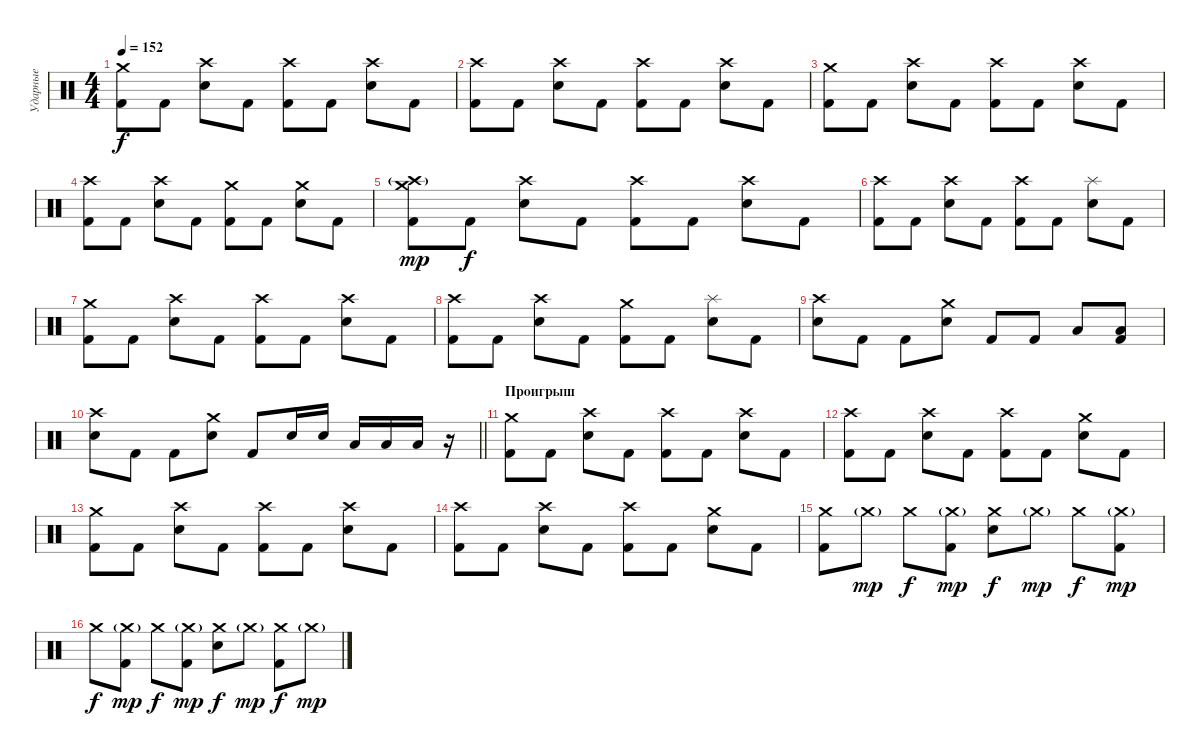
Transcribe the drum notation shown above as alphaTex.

\track ("Ударные" "Ударные") {instrument percussion}
\staff {score}
\articulation defaults
\ts (4 4)
\tempo 152
\clef neutral
\ks c
("Crash medium (hit)" "Kick (hit) 2").8{dy f} "Kick (hit) 2".8 ("Crash high (hit)" "Snare (hit) 2").8 "Kick (hit) 2".8 ("Crash high (hit)" "Kick (hit) 2").8 "Kick (hit) 2".8 ("Crash high (hit)" "Snare (hit) 2").8 "Kick (hit) 2".8 |
("Crash high (hit)" "Kick (hit) 2").8 "Kick (hit) 2".8 ("Crash high (hit)" "Snare (hit) 2").8 "Kick (hit) 2".8 ("Crash high (hit)" "Kick (hit) 2").8 "Kick (hit) 2".8 ("Crash high (hit)" "Snare (hit) 2").8 "Kick (hit) 2".8 |
("Crash medium (hit)" "Kick (hit) 2").8 "Kick (hit) 2".8 ("Crash high (hit)" "Snare (hit) 2").8 "Kick (hit) 2".8 ("Crash high (hit)" "Kick (hit) 2").8 "Kick (hit) 2".8 ("Crash high (hit)" "Snare (hit) 2").8 "Kick (hit) 2".8 |
("Crash high (hit)" "Kick (hit) 2").8 "Kick (hit) 2".8 ("Crash high (hit)" "Snare (hit) 2").8 "Kick (hit) 2".8 ("Crash medium (hit)" "Kick (hit) 2").8 "Kick (hit) 2".8 ("Crash medium (hit)" "Snare (hit) 2").8 "Kick (hit) 2".8 |
("Crash medium (hit)" "Crash high (hit)"{g} "Kick (hit) 2").8{dy mp} "Kick (hit) 2".8{dy f} ("Crash high (hit)" "Snare (hit) 2").8 "Kick (hit) 2".8 ("Crash high (hit)" "Kick (hit) 2").8 "Kick (hit) 2".8 ("Crash high (hit)" "Snare (hit) 2").8 "Kick (hit) 2".8 |
("Crash high (hit)" "Kick (hit) 2").8 "Kick (hit) 2".8 ("Crash high (hit)" "Snare (hit) 2").8 "Kick (hit) 2".8 ("Crash high (hit)" "Kick (hit) 2").8 "Kick (hit) 2".8 ("Splash (hit)" "Snare (hit) 2").8 "Kick (hit) 2".8 |
("Crash medium (hit)" "Kick (hit) 2").8 "Kick (hit) 2".8 ("Crash high (hit)" "Snare (hit) 2").8 "Kick (hit) 2".8 ("Crash high (hit)" "Kick (hit) 2").8 "Kick (hit) 2".8 ("Crash high (hit)" "Snare (hit) 2").8 "Kick (hit) 2".8 |
("Crash high (hit)" "Kick (hit) 2").8 "Kick (hit) 2".8 ("Crash high (hit)" "Snare (hit) 2").8 "Kick (hit) 2".8 ("Crash medium (hit)" "Kick (hit) 2").8 "Kick (hit) 2".8 ("Splash (hit)" "Snare (hit) 2").8 "Kick (hit) 2".8 |
("Crash high (hit)" "Snare (hit) 2").8 "Kick (hit) 2".8 "Kick (hit) 2".8 ("Crash medium (hit)" "Snare (hit) 2").8 "Kick (hit) 2".8 "Kick (hit) 2".8 "Low Floor Tom (hit)".8 ("Low Tom (hit)" "Kick (hit) 2").8 |
\barLineRight lightlight
("Crash high (hit)" "Snare (hit) 2").8 "Kick (hit) 2".8 "Kick (hit) 2".8 ("Crash medium (hit)" "Snare (hit) 2").8 "Kick (hit) 2".8 "Snare (hit) 2".16 "Snare (hit) 2".16 "Low Tom (hit)".16 "Low Tom (hit)".16 "Low Floor Tom (hit)".16 r.16 |
\section ("" "Проигрыш ")
("Crash medium (hit)" "Kick (hit) 2").8 "Kick (hit) 2".8 ("Crash high (hit)" "Snare (hit) 2").8 "Kick (hit) 2".8 ("Crash high (hit)" "Kick (hit) 2").8 "Kick (hit) 2".8 ("Crash high (hit)" "Snare (hit) 2").8 "Kick (hit) 2".8 |
("Crash high (hit)" "Kick (hit) 2").8 "Kick (hit) 2".8 ("Crash high (hit)" "Snare (hit) 2").8 "Kick (hit) 2".8 ("Crash high (hit)" "Kick (hit) 2").8 "Kick (hit) 2".8 ("Crash medium (hit)" "Snare (hit) 2").8 "Kick (hit) 2".8 |
("Crash medium (hit)" "Kick (hit) 2").8 "Kick (hit) 2".8 ("Crash high (hit)" "Snare (hit) 2").8 "Kick (hit) 2".8 ("Crash high (hit)" "Kick (hit) 2").8 "Kick (hit) 2".8 ("Crash high (hit)" "Snare (hit) 2").8 "Kick (hit) 2".8 |
("Crash high (hit)" "Kick (hit) 2").8 "Kick (hit) 2".8 ("Crash high (hit)" "Snare (hit) 2").8 "Kick (hit) 2".8 ("Crash high (hit)" "Kick (hit) 2").8 "Kick (hit) 2".8 ("Crash medium (hit)" "Snare (hit) 2").8 "Kick (hit) 2".8 |
("Crash medium (hit)" "Kick (hit) 2").8 "Crash medium (hit)"{g}.8{dy mp} "Crash medium (hit)".8{dy f} ("Crash medium (hit)"{g} "Kick (hit) 2").8{dy mp} ("Crash medium (hit)" "Snare (hit) 2").8{dy f} "Crash medium (hit)"{g}.8{dy mp} "Crash medium (hit)".8{dy f} ("Crash medium (hit)"{g} "Kick (hit) 2").8{dy mp} |
"Crash medium (hit)".8{dy f} ("Crash medium (hit)"{g} "Kick (hit) 2").8{dy mp} "Crash medium (hit)".8{dy f} ("Crash medium (hit)"{g} "Kick (hit) 2").8{dy mp} ("Crash medium (hit)" "Snare (hit) 2").8{dy f} "Crash medium (hit)"{g}.8{dy mp} ("Crash medium (hit)" "Kick (hit) 2").8{dy f} "Crash medium (hit)"{g}.8{dy mp}
